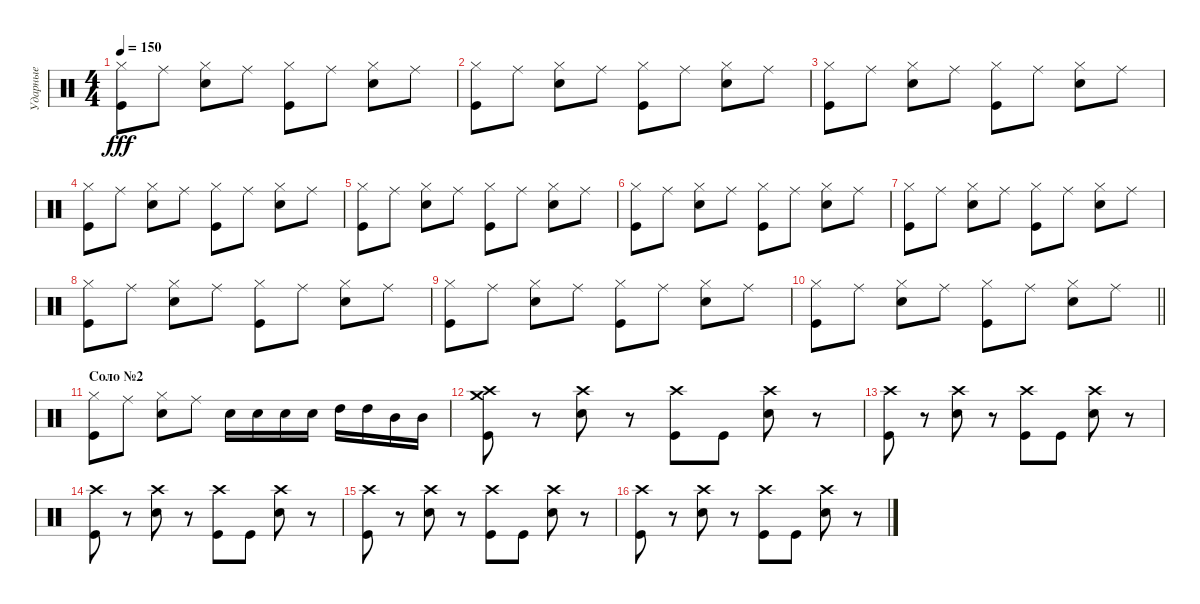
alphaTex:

\track ("Ударные" "Ударные") {instrument percussion}
\staff {score}
\articulation defaults
\ts (4 4)
\tempo 150
\clef neutral
\ks c
("Hi-Hat (closed)" "Kick (hit)").8{dy fff} "Ride (middle)".8 ("Hi-Hat (closed)" "Electric Snare (hit)").8 "Ride (middle)".8 ("Hi-Hat (closed)" "Kick (hit)").8 "Ride (middle)".8 ("Hi-Hat (closed)" "Electric Snare (hit)").8 "Ride (middle)".8 |
("Hi-Hat (closed)" "Kick (hit)").8 "Ride (middle)".8 ("Hi-Hat (closed)" "Electric Snare (hit)").8 "Ride (middle)".8 ("Hi-Hat (closed)" "Kick (hit)").8 "Ride (middle)".8 ("Hi-Hat (closed)" "Electric Snare (hit)").8 "Ride (middle)".8 |
("Hi-Hat (closed)" "Kick (hit)").8 "Ride (middle)".8 ("Hi-Hat (closed)" "Electric Snare (hit)").8 "Ride (middle)".8 ("Hi-Hat (closed)" "Kick (hit)").8 "Ride (middle)".8 ("Hi-Hat (closed)" "Electric Snare (hit)").8 "Ride (middle)".8 |
("Hi-Hat (closed)" "Kick (hit)").8 "Ride (middle)".8 ("Hi-Hat (closed)" "Electric Snare (hit)").8 "Ride (middle)".8 ("Hi-Hat (closed)" "Kick (hit)").8 "Ride (middle)".8 ("Hi-Hat (closed)" "Electric Snare (hit)").8 "Ride (middle)".8 |
("Hi-Hat (closed)" "Kick (hit)").8 "Ride (middle)".8 ("Hi-Hat (closed)" "Electric Snare (hit)").8 "Ride (middle)".8 ("Hi-Hat (closed)" "Kick (hit)").8 "Ride (middle)".8 ("Hi-Hat (closed)" "Electric Snare (hit)").8 "Ride (middle)".8 |
("Hi-Hat (closed)" "Kick (hit)").8 "Ride (middle)".8 ("Hi-Hat (closed)" "Electric Snare (hit)").8 "Ride (middle)".8 ("Hi-Hat (closed)" "Kick (hit)").8 "Ride (middle)".8 ("Hi-Hat (closed)" "Electric Snare (hit)").8 "Ride (middle)".8 |
("Hi-Hat (closed)" "Kick (hit)").8 "Ride (middle)".8 ("Hi-Hat (closed)" "Electric Snare (hit)").8 "Ride (middle)".8 ("Hi-Hat (closed)" "Kick (hit)").8 "Ride (middle)".8 ("Hi-Hat (closed)" "Electric Snare (hit)").8 "Ride (middle)".8 |
("Hi-Hat (closed)" "Kick (hit)").8 "Ride (middle)".8 ("Hi-Hat (closed)" "Electric Snare (hit)").8 "Ride (middle)".8 ("Hi-Hat (closed)" "Kick (hit)").8 "Ride (middle)".8 ("Hi-Hat (closed)" "Electric Snare (hit)").8 "Ride (middle)".8 |
("Hi-Hat (closed)" "Kick (hit)").8 "Ride (middle)".8 ("Hi-Hat (closed)" "Electric Snare (hit)").8 "Ride (middle)".8 ("Hi-Hat (closed)" "Kick (hit)").8 "Ride (middle)".8 ("Hi-Hat (closed)" "Electric Snare (hit)").8 "Ride (middle)".8 |
\barLineRight lightlight
("Hi-Hat (closed)" "Kick (hit)").8 "Ride (middle)".8 ("Hi-Hat (closed)" "Electric Snare (hit)").8 "Ride (middle)".8 ("Hi-Hat (closed)" "Kick (hit)").8 "Ride (middle)".8 ("Hi-Hat (closed)" "Electric Snare (hit)").8 "Ride (middle)".8 |
\section ("" "Соло №2")
("Kick (hit)" "Hi-Hat (closed)").8 "Ride (middle)".8 ("Electric Snare (hit)" "Hi-Hat (closed)").8 "Ride (middle)".8 "Electric Snare (hit)".16 "Electric Snare (hit)".16 "Electric Snare (hit)".16 "Electric Snare (hit)".16 "High Tom (hit)".16 "High Tom (hit)".16 "Mid Tom (hit)".16 "Mid Tom (hit)".16 |
("Crash medium (hit)" "Kick (hit)" "Crash high (hit)").8 r.8 ("Crash high (hit)" "Electric Snare (hit)").8 r.8 ("Crash high (hit)" "Kick (hit)").8 "Kick (hit)".8 ("Crash high (hit)" "Electric Snare (hit)").8 r.8 |
("Crash high (hit)" "Kick (hit)").8 r.8 ("Crash high (hit)" "Electric Snare (hit)").8 r.8 ("Crash high (hit)" "Kick (hit)").8 "Kick (hit)".8 ("Crash high (hit)" "Electric Snare (hit)").8 r.8 |
("Crash high (hit)" "Kick (hit)").8 r.8 ("Crash high (hit)" "Electric Snare (hit)").8 r.8 ("Crash high (hit)" "Kick (hit)").8 "Kick (hit)".8 ("Crash high (hit)" "Electric Snare (hit)").8 r.8 |
("Crash high (hit)" "Kick (hit)").8 r.8 ("Crash high (hit)" "Electric Snare (hit)").8 r.8 ("Crash high (hit)" "Kick (hit)").8 "Kick (hit)".8 ("Crash high (hit)" "Electric Snare (hit)").8 r.8 |
("Crash high (hit)" "Kick (hit)").8 r.8 ("Crash high (hit)" "Electric Snare (hit)").8 r.8 ("Crash high (hit)" "Kick (hit)").8 "Kick (hit)".8 ("Crash high (hit)" "Electric Snare (hit)").8 r.8
